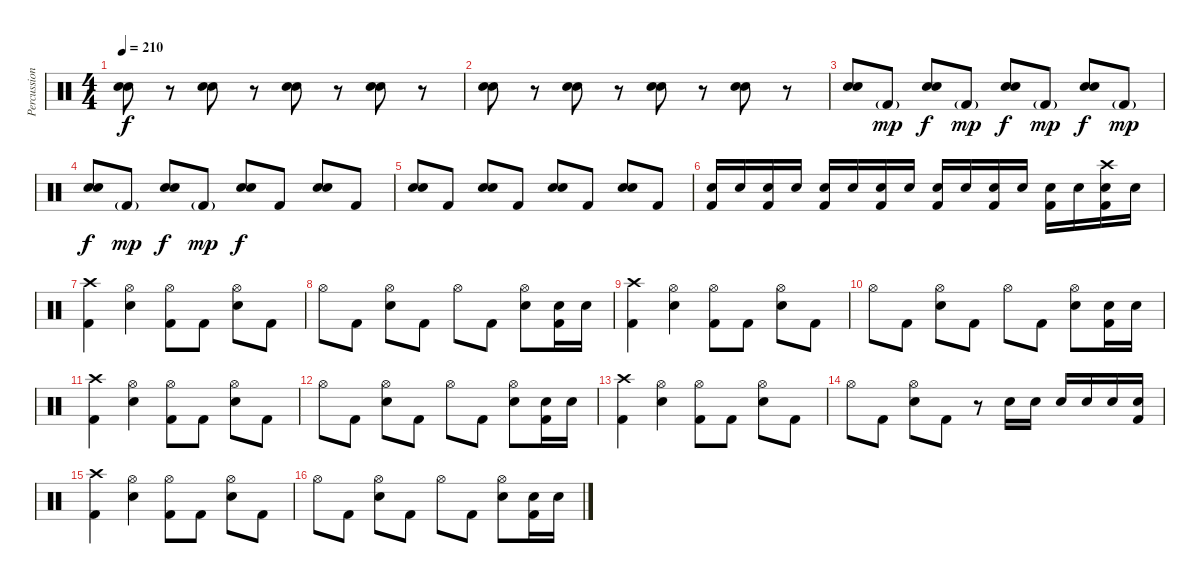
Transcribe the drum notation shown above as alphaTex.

\track ("Percussions" "Percussion") {instrument percussion}
\staff {score}
\articulation defaults
\ts (4 4)
\tempo 210
\clef neutral
\ks c
("Snare (hit) 2" "Snare (hit) 2").8{dy f} r.8 ("Snare (hit) 2" "Snare (hit) 2").8 r.8 ("Snare (hit) 2" "Snare (hit) 2").8 r.8 ("Snare (hit) 2" "Snare (hit) 2").8 r.8 |
("Snare (hit) 2" "Snare (hit) 2").8 r.8 ("Snare (hit) 2" "Snare (hit) 2").8 r.8 ("Snare (hit) 2" "Snare (hit) 2").8 r.8 ("Snare (hit) 2" "Snare (hit) 2").8 r.8 |
("Snare (hit) 2" "Snare (hit) 2").8 "Kick (hit) 2"{g}.8{dy mp} ("Snare (hit) 2" "Snare (hit) 2").8{dy f} "Kick (hit) 2"{g}.8{dy mp} ("Snare (hit) 2" "Snare (hit) 2").8{dy f} "Kick (hit) 2"{g}.8{dy mp} ("Snare (hit) 2" "Snare (hit) 2").8{dy f} "Kick (hit) 2"{g}.8{dy mp} |
("Snare (hit) 2" "Snare (hit) 2").8{dy f} "Kick (hit) 2"{g}.8{dy mp} ("Snare (hit) 2" "Snare (hit) 2").8{dy f} "Kick (hit) 2"{g}.8{dy mp} ("Snare (hit) 2" "Snare (hit) 2").8{dy f} "Kick (hit) 2".8 ("Snare (hit) 2" "Snare (hit) 2").8 "Kick (hit) 2".8 |
("Snare (hit) 2" "Snare (hit) 2").8 "Kick (hit) 2".8 ("Snare (hit) 2" "Snare (hit) 2").8 "Kick (hit) 2".8 ("Snare (hit) 2" "Snare (hit) 2").8 "Kick (hit) 2".8 ("Snare (hit) 2" "Snare (hit) 2").8 "Kick (hit) 2".8 |
("Kick (hit) 2" "Snare (hit) 2").16 "Snare (hit) 2".16 ("Kick (hit) 2" "Snare (hit) 2").16 "Snare (hit) 2".16 ("Kick (hit) 2" "Snare (hit) 2").16 "Snare (hit) 2".16 ("Kick (hit) 2" "Snare (hit) 2").16 "Snare (hit) 2".16 ("Kick (hit) 2" "Snare (hit) 2").16 "Snare (hit) 2".16 ("Kick (hit) 2" "Snare (hit) 2").16 "Snare (hit) 2".16 ("Kick (hit) 2" "Snare (hit) 2").16 "Snare (hit) 2".16 ("Kick (hit) 2" "Snare (hit) 2" "Crash high (hit)").16 "Snare (hit) 2".16 |
("Kick (hit) 2" "Crash high (hit)").4 ("Snare (hit) 2" "Hi-Hat (open)").4 ("Kick (hit) 2" "Hi-Hat (open)").8 "Kick (hit) 2".8 ("Snare (hit) 2" "Hi-Hat (open)").8 "Kick (hit) 2".8 |
"Hi-Hat (open)".8 "Kick (hit) 2".8 ("Snare (hit) 2" "Hi-Hat (open)").8 "Kick (hit) 2".8 "Hi-Hat (open)".8 "Kick (hit) 2".8 ("Snare (hit) 2" "Hi-Hat (open)").8 ("Kick (hit) 2" "Snare (hit) 2").16 "Snare (hit) 2".16 |
("Kick (hit) 2" "Crash high (hit)").4 ("Snare (hit) 2" "Hi-Hat (open)").4 ("Kick (hit) 2" "Hi-Hat (open)").8 "Kick (hit) 2".8 ("Snare (hit) 2" "Hi-Hat (open)").8 "Kick (hit) 2".8 |
"Hi-Hat (open)".8 "Kick (hit) 2".8 ("Snare (hit) 2" "Hi-Hat (open)").8 "Kick (hit) 2".8 "Hi-Hat (open)".8 "Kick (hit) 2".8 ("Snare (hit) 2" "Hi-Hat (open)").8 ("Kick (hit) 2" "Snare (hit) 2").16 "Snare (hit) 2".16 |
("Kick (hit) 2" "Crash high (hit)").4 ("Snare (hit) 2" "Hi-Hat (open)").4 ("Kick (hit) 2" "Hi-Hat (open)").8 "Kick (hit) 2".8 ("Snare (hit) 2" "Hi-Hat (open)").8 "Kick (hit) 2".8 |
"Hi-Hat (open)".8 "Kick (hit) 2".8 ("Snare (hit) 2" "Hi-Hat (open)").8 "Kick (hit) 2".8 "Hi-Hat (open)".8 "Kick (hit) 2".8 ("Snare (hit) 2" "Hi-Hat (open)").8 ("Kick (hit) 2" "Snare (hit) 2").16 "Snare (hit) 2".16 |
("Kick (hit) 2" "Crash high (hit)").4 ("Snare (hit) 2" "Hi-Hat (open)").4 ("Kick (hit) 2" "Hi-Hat (open)").8 "Kick (hit) 2".8 ("Snare (hit) 2" "Hi-Hat (open)").8 "Kick (hit) 2".8 |
"Hi-Hat (open)".8 "Kick (hit) 2".8 ("Snare (hit) 2" "Hi-Hat (open)").8 "Kick (hit) 2".8 r.8 "Snare (hit) 2".16 "Snare (hit) 2".16 "Snare (hit) 2".16 "Snare (hit) 2".16 "Snare (hit) 2".16 ("Kick (hit) 2" "Snare (hit) 2").16 |
("Kick (hit) 2" "Crash high (hit)").4 ("Snare (hit) 2" "Hi-Hat (open)").4 ("Kick (hit) 2" "Hi-Hat (open)").8 "Kick (hit) 2".8 ("Snare (hit) 2" "Hi-Hat (open)").8 "Kick (hit) 2".8 |
"Hi-Hat (open)".8 "Kick (hit) 2".8 ("Snare (hit) 2" "Hi-Hat (open)").8 "Kick (hit) 2".8 "Hi-Hat (open)".8 "Kick (hit) 2".8 ("Snare (hit) 2" "Hi-Hat (open)").8 ("Kick (hit) 2" "Snare (hit) 2").16 "Snare (hit) 2".16
